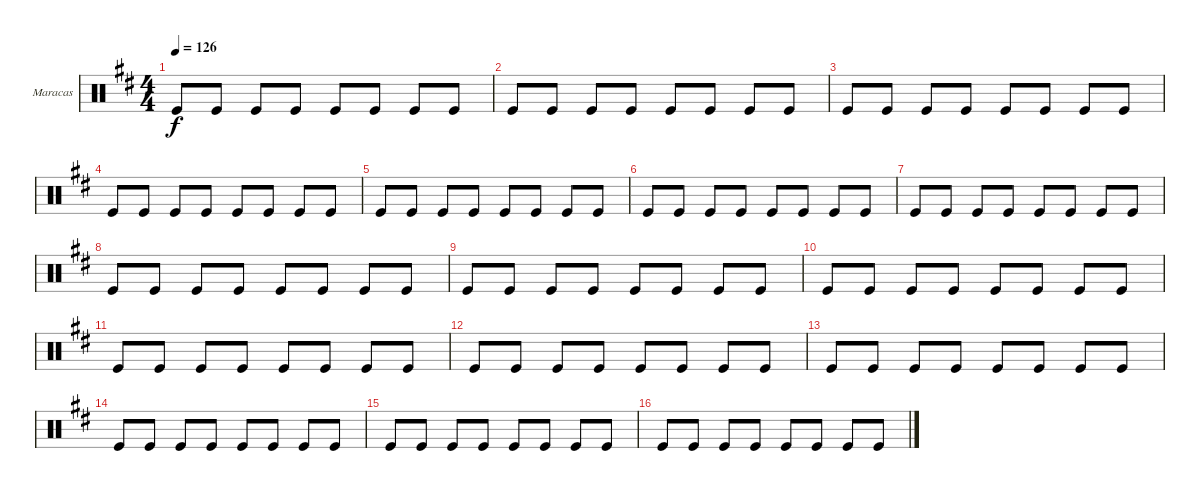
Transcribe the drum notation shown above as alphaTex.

\bracketExtendMode groupsimilarinstruments
\firstSystemTrackNameOrientation horizontal
\otherSystemsTrackNameOrientation horizontal
\track ("Maracas" "Maracas") {instrument percussion}
\staff {score}
\articulation defaults
\ts (4 4)
\tempo 126
\clef neutral
\ks d "Kick (hit)".8{dy f} "Kick (hit)".8 "Kick (hit)".8 "Kick (hit)".8 "Kick (hit)".8 "Kick (hit)".8 "Kick (hit)".8 "Kick (hit)".8
|
"Kick (hit)".8 "Kick (hit)".8 "Kick (hit)".8 "Kick (hit)".8 "Kick (hit)".8 "Kick (hit)".8 "Kick (hit)".8 "Kick (hit)".8 |
"Kick (hit)".8 "Kick (hit)".8 "Kick (hit)".8 "Kick (hit)".8 "Kick (hit)".8 "Kick (hit)".8 "Kick (hit)".8 "Kick (hit)".8 |
"Kick (hit)".8 "Kick (hit)".8 "Kick (hit)".8 "Kick (hit)".8 "Kick (hit)".8 "Kick (hit)".8 "Kick (hit)".8 "Kick (hit)".8 |
"Kick (hit)".8 "Kick (hit)".8 "Kick (hit)".8 "Kick (hit)".8 "Kick (hit)".8 "Kick (hit)".8 "Kick (hit)".8 "Kick (hit)".8 |
"Kick (hit)".8 "Kick (hit)".8 "Kick (hit)".8 "Kick (hit)".8 "Kick (hit)".8 "Kick (hit)".8 "Kick (hit)".8 "Kick (hit)".8 |
"Kick (hit)".8 "Kick (hit)".8 "Kick (hit)".8 "Kick (hit)".8 "Kick (hit)".8 "Kick (hit)".8 "Kick (hit)".8 "Kick (hit)".8 |
"Kick (hit)".8 "Kick (hit)".8 "Kick (hit)".8 "Kick (hit)".8 "Kick (hit)".8 "Kick (hit)".8 "Kick (hit)".8 "Kick (hit)".8 |
"Kick (hit)".8 "Kick (hit)".8 "Kick (hit)".8 "Kick (hit)".8 "Kick (hit)".8 "Kick (hit)".8 "Kick (hit)".8 "Kick (hit)".8 |
"Kick (hit)".8 "Kick (hit)".8 "Kick (hit)".8 "Kick (hit)".8 "Kick (hit)".8 "Kick (hit)".8 "Kick (hit)".8 "Kick (hit)".8 |
"Kick (hit)".8 "Kick (hit)".8 "Kick (hit)".8 "Kick (hit)".8 "Kick (hit)".8 "Kick (hit)".8 "Kick (hit)".8 "Kick (hit)".8 |
"Kick (hit)".8 "Kick (hit)".8 "Kick (hit)".8 "Kick (hit)".8 "Kick (hit)".8 "Kick (hit)".8 "Kick (hit)".8 "Kick (hit)".8 |
"Kick (hit)".8 "Kick (hit)".8 "Kick (hit)".8 "Kick (hit)".8 "Kick (hit)".8 "Kick (hit)".8 "Kick (hit)".8 "Kick (hit)".8 |
"Kick (hit)".8 "Kick (hit)".8 "Kick (hit)".8 "Kick (hit)".8 "Kick (hit)".8 "Kick (hit)".8 "Kick (hit)".8 "Kick (hit)".8 |
"Kick (hit)".8 "Kick (hit)".8 "Kick (hit)".8 "Kick (hit)".8 "Kick (hit)".8 "Kick (hit)".8 "Kick (hit)".8 "Kick (hit)".8 |
"Kick (hit)".8 "Kick (hit)".8 "Kick (hit)".8 "Kick (hit)".8 "Kick (hit)".8 "Kick (hit)".8 "Kick (hit)".8 "Kick (hit)".8
